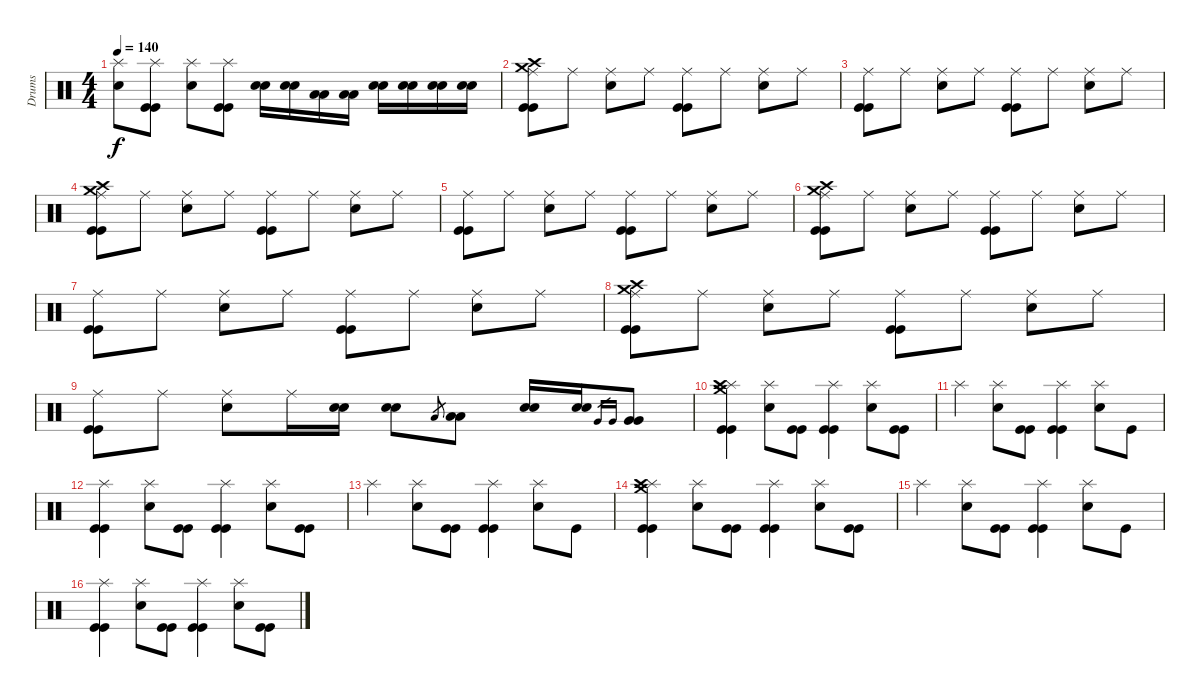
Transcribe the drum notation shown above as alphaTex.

\track ("Drums" "Drums") {instrument percussion}
\staff {score}
\articulation defaults
\ts (4 4)
\tempo 140
\clef neutral
\ks c
("Splash (hit)" "Snare (hit) 2").8{dy f} ("Splash (hit)" "Kick (hit)" "Kick (hit)").8 ("Splash (hit)" "Snare (hit) 2").8 ("Splash (hit)" "Kick (hit)" "Kick (hit)").8 ("Snare (hit) 2" "Snare (hit) 2").16 ("Snare (hit) 2" "Snare (hit) 2").16 ("Low Tom (hit)" "Low Tom (hit)").16 ("Low Tom (hit)" "Low Tom (hit)").16 ("Snare (hit) 2" "Snare (hit) 2").16 ("Snare (hit) 2" "Snare (hit) 2").16 ("Snare (hit) 2" "Snare (hit) 2").16 ("Snare (hit) 2" "Snare (hit) 2").16 |
("Ride (middle)" "Crash high (hit)" "Crash medium (hit)" "Kick (hit)" "Kick (hit)").8 "Ride (middle)".8 ("Ride (middle)" "Snare (hit) 2").8 "Ride (middle)".8 ("Ride (middle)" "Kick (hit)" "Kick (hit)").8 "Ride (middle)".8 ("Ride (middle)" "Snare (hit) 2").8 "Ride (middle)".8 |
("Ride (middle)" "Kick (hit)" "Kick (hit)").8 "Ride (middle)".8 ("Ride (middle)" "Snare (hit) 2").8 "Ride (middle)".8 ("Ride (middle)" "Kick (hit)" "Kick (hit)").8 "Ride (middle)".8 ("Ride (middle)" "Snare (hit) 2").8 "Ride (middle)".8 |
("Ride (middle)" "Crash high (hit)" "Crash medium (hit)" "Kick (hit)" "Kick (hit)").8 "Ride (middle)".8 ("Ride (middle)" "Snare (hit) 2").8 "Ride (middle)".8 ("Ride (middle)" "Kick (hit)" "Kick (hit)").8 "Ride (middle)".8 ("Ride (middle)" "Snare (hit) 2").8 "Ride (middle)".8 |
("Ride (middle)" "Kick (hit)" "Kick (hit)").8 "Ride (middle)".8 ("Ride (middle)" "Snare (hit) 2").8 "Ride (middle)".8 ("Ride (middle)" "Kick (hit)" "Kick (hit)").8 "Ride (middle)".8 ("Ride (middle)" "Snare (hit) 2").8 "Ride (middle)".8 |
("Ride (middle)" "Crash high (hit)" "Crash medium (hit)" "Kick (hit)" "Kick (hit)").8 "Ride (middle)".8 ("Ride (middle)" "Snare (hit) 2").8 "Ride (middle)".8 ("Ride (middle)" "Kick (hit)" "Kick (hit)").8 "Ride (middle)".8 ("Ride (middle)" "Snare (hit) 2").8 "Ride (middle)".8 |
("Ride (middle)" "Kick (hit)" "Kick (hit)").8 "Ride (middle)".8 ("Ride (middle)" "Snare (hit) 2").8 "Ride (middle)".8 ("Ride (middle)" "Kick (hit)" "Kick (hit)").8 "Ride (middle)".8 ("Ride (middle)" "Snare (hit) 2").8 "Ride (middle)".8 |
("Ride (middle)" "Crash high (hit)" "Crash medium (hit)" "Kick (hit)" "Kick (hit)").8 "Ride (middle)".8 ("Ride (middle)" "Snare (hit) 2").8 "Ride (middle)".8 ("Ride (middle)" "Kick (hit)" "Kick (hit)").8 "Ride (middle)".8 ("Ride (middle)" "Snare (hit) 2").8 "Ride (middle)".8 |
("Ride (middle)" "Kick (hit)" "Kick (hit)").8 "Ride (middle)".8 ("Ride (middle)" "Snare (hit) 2").8 "Ride (middle)".16 ("Snare (hit) 2" "Snare (hit) 2").16 ("Snare (hit) 2" "Snare (hit) 2").8 "Low Tom (hit)".8{gr} ("Low Tom (hit)" "Low Tom (hit)").8 ("Snare (hit) 2" "Snare (hit) 2").16 ("Snare (hit) 2" "Snare (hit) 2").16 "Very Low Tom (hit)".16{gr} "Very Low Tom (hit)".16{gr} ("Very Low Tom (hit)" "Very Low Tom (hit)").8 |
("Splash (hit)" "Crash high (hit)" "Crash medium (hit)" "Kick (hit)" "Kick (hit)").4 ("Splash (hit)" "Snare (hit) 2").8 ("Kick (hit)" "Kick (hit)").8 ("Splash (hit)" "Kick (hit)" "Kick (hit)").4 ("Splash (hit)" "Snare (hit) 2").8 ("Kick (hit)" "Kick (hit)").8 |
"Splash (hit)".4 ("Splash (hit)" "Snare (hit) 2").8 ("Kick (hit)" "Kick (hit)").8 ("Splash (hit)" "Kick (hit)" "Kick (hit)").4 ("Splash (hit)" "Snare (hit) 2").8 "Kick (hit)".8 |
("Splash (hit)" "Kick (hit)" "Kick (hit)").4 ("Splash (hit)" "Snare (hit) 2").8 ("Kick (hit)" "Kick (hit)").8 ("Splash (hit)" "Kick (hit)" "Kick (hit)").4 ("Splash (hit)" "Snare (hit) 2").8 ("Kick (hit)" "Kick (hit)").8 |
"Splash (hit)".4 ("Splash (hit)" "Snare (hit) 2").8 ("Kick (hit)" "Kick (hit)").8 ("Splash (hit)" "Kick (hit)" "Kick (hit)").4 ("Splash (hit)" "Snare (hit) 2").8 "Kick (hit)".8 |
("Splash (hit)" "Crash high (hit)" "Crash medium (hit)" "Kick (hit)" "Kick (hit)").4 ("Splash (hit)" "Snare (hit) 2").8 ("Kick (hit)" "Kick (hit)").8 ("Splash (hit)" "Kick (hit)" "Kick (hit)").4 ("Splash (hit)" "Snare (hit) 2").8 ("Kick (hit)" "Kick (hit)").8 |
"Splash (hit)".4 ("Splash (hit)" "Snare (hit) 2").8 ("Kick (hit)" "Kick (hit)").8 ("Splash (hit)" "Kick (hit)" "Kick (hit)").4 ("Splash (hit)" "Snare (hit) 2").8 "Kick (hit)".8 |
("Splash (hit)" "Kick (hit)" "Kick (hit)").4 ("Splash (hit)" "Snare (hit) 2").8 ("Kick (hit)" "Kick (hit)").8 ("Splash (hit)" "Kick (hit)" "Kick (hit)").4 ("Splash (hit)" "Snare (hit) 2").8 ("Kick (hit)" "Kick (hit)").8
